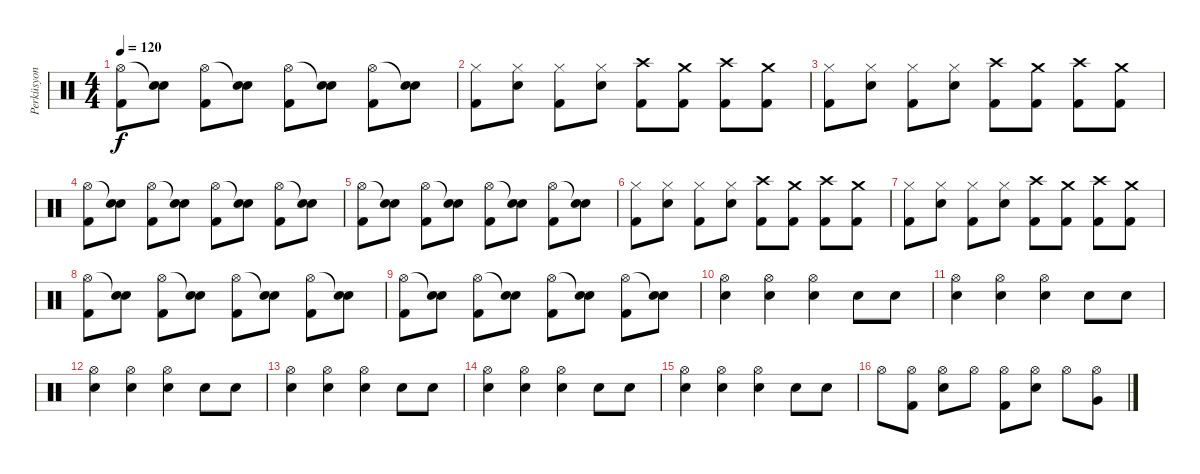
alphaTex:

\track ("Perküsyon" "Perküsyon") {instrument percussion}
\staff {score}
\articulation defaults
\ts (4 4)
\tempo 120
\clef neutral
\ks c
("Hi-Hat (open)" "Kick (hit) 2").8{dy f} ("Snare (hit)"{t} "Electric Snare (hit)").8 ("Hi-Hat (open)" "Kick (hit) 2").8 ("Snare (hit)"{t} "Electric Snare (hit)").8 ("Hi-Hat (open)" "Kick (hit) 2").8 ("Snare (hit)"{t} "Electric Snare (hit)").8 ("Hi-Hat (open)" "Kick (hit) 2").8 ("Snare (hit)"{t} "Electric Snare (hit)").8 |
("Hi-Hat (closed)" "Kick (hit) 2").8 ("Hi-Hat (closed)" "Electric Snare (hit)").8 ("Hi-Hat (closed)" "Kick (hit) 2").8 ("Hi-Hat (closed)" "Electric Snare (hit)").8 ("Crash high (hit)" "Kick (hit) 2").8 ("Crash medium (hit)" "Kick (hit) 2").8 ("Crash high (hit)" "Kick (hit) 2").8 ("Crash medium (hit)" "Kick (hit) 2").8 |
("Hi-Hat (closed)" "Kick (hit) 2").8 ("Hi-Hat (closed)" "Electric Snare (hit)").8 ("Hi-Hat (closed)" "Kick (hit) 2").8 ("Hi-Hat (closed)" "Electric Snare (hit)").8 ("Crash high (hit)" "Kick (hit) 2").8 ("Crash medium (hit)" "Kick (hit) 2").8 ("Crash high (hit)" "Kick (hit) 2").8 ("Crash medium (hit)" "Kick (hit) 2").8 |
("Hi-Hat (open)" "Kick (hit) 2").8 ("Snare (hit)"{t} "Electric Snare (hit)").8 ("Hi-Hat (open)" "Kick (hit) 2").8 ("Snare (hit)"{t} "Electric Snare (hit)").8 ("Hi-Hat (open)" "Kick (hit) 2").8 ("Snare (hit)"{t} "Electric Snare (hit)").8 ("Hi-Hat (open)" "Kick (hit) 2").8 ("Snare (hit)"{t} "Electric Snare (hit)").8 |
("Hi-Hat (open)" "Kick (hit) 2").8 ("Snare (hit)"{t} "Electric Snare (hit)").8 ("Hi-Hat (open)" "Kick (hit) 2").8 ("Snare (hit)"{t} "Electric Snare (hit)").8 ("Hi-Hat (open)" "Kick (hit) 2").8 ("Snare (hit)"{t} "Electric Snare (hit)").8 ("Hi-Hat (open)" "Kick (hit) 2").8 ("Snare (hit)"{t} "Electric Snare (hit)").8 |
("Hi-Hat (closed)" "Kick (hit) 2").8 ("Hi-Hat (closed)" "Electric Snare (hit)").8 ("Hi-Hat (closed)" "Kick (hit) 2").8 ("Hi-Hat (closed)" "Electric Snare (hit)").8 ("Crash high (hit)" "Kick (hit) 2").8 ("Crash medium (hit)" "Kick (hit) 2").8 ("Crash high (hit)" "Kick (hit) 2").8 ("Crash medium (hit)" "Kick (hit) 2").8 |
("Hi-Hat (closed)" "Kick (hit) 2").8 ("Hi-Hat (closed)" "Electric Snare (hit)").8 ("Hi-Hat (closed)" "Kick (hit) 2").8 ("Hi-Hat (closed)" "Electric Snare (hit)").8 ("Crash high (hit)" "Kick (hit) 2").8 ("Crash medium (hit)" "Kick (hit) 2").8 ("Crash high (hit)" "Kick (hit) 2").8 ("Crash medium (hit)" "Kick (hit) 2").8 |
("Hi-Hat (open)" "Kick (hit) 2").8 ("Snare (hit)"{t} "Electric Snare (hit)").8 ("Hi-Hat (open)" "Kick (hit) 2").8 ("Snare (hit)"{t} "Electric Snare (hit)").8 ("Hi-Hat (open)" "Kick (hit) 2").8 ("Snare (hit)"{t} "Electric Snare (hit)").8 ("Hi-Hat (open)" "Kick (hit) 2").8 ("Snare (hit)"{t} "Electric Snare (hit)").8 |
("Hi-Hat (open)" "Kick (hit) 2").8 ("Snare (hit)"{t} "Electric Snare (hit)").8 ("Hi-Hat (open)" "Kick (hit) 2").8 ("Snare (hit)"{t} "Electric Snare (hit)").8 ("Hi-Hat (open)" "Kick (hit) 2").8 ("Snare (hit)"{t} "Electric Snare (hit)").8 ("Hi-Hat (open)" "Kick (hit) 2").8 ("Snare (hit)"{t} "Electric Snare (hit)").8 |
("Hi-Hat (open)" "Snare (hit) 2").4 ("Hi-Hat (open)" "Snare (hit) 2").4 ("Hi-Hat (open)" "Snare (hit) 2").4 "Electric Snare (hit)".8 "Electric Snare (hit)".8 |
("Hi-Hat (open)" "Snare (hit) 2").4 ("Hi-Hat (open)" "Snare (hit) 2").4 ("Hi-Hat (open)" "Snare (hit) 2").4 "Electric Snare (hit)".8 "Electric Snare (hit)".8 |
("Hi-Hat (open)" "Snare (hit) 2").4 ("Hi-Hat (open)" "Snare (hit) 2").4 ("Hi-Hat (open)" "Snare (hit) 2").4 "Electric Snare (hit)".8 "Electric Snare (hit)".8 |
("Hi-Hat (open)" "Snare (hit) 2").4 ("Hi-Hat (open)" "Snare (hit) 2").4 ("Hi-Hat (open)" "Snare (hit) 2").4 "Electric Snare (hit)".8 "Electric Snare (hit)".8 |
("Hi-Hat (open)" "Snare (hit) 2").4 ("Hi-Hat (open)" "Snare (hit) 2").4 ("Hi-Hat (open)" "Snare (hit) 2").4 "Electric Snare (hit)".8 "Electric Snare (hit)".8 |
("Hi-Hat (open)" "Snare (hit) 2").4 ("Hi-Hat (open)" "Snare (hit) 2").4 ("Hi-Hat (open)" "Snare (hit) 2").4 "Electric Snare (hit)".8 "Electric Snare (hit)".8 |
"Hi-Hat (open)".8 ("Hi-Hat (open)" "Kick (hit) 2").8 ("Hi-Hat (open)" "Electric Snare (hit)").8 "Hi-Hat (open)".8 ("Hi-Hat (open)" "Kick (hit) 2").8 ("Hi-Hat (open)" "Electric Snare (hit)").8 "Hi-Hat (open)".8 ("Hi-Hat (open)" "Very Low Tom (hit)").8
